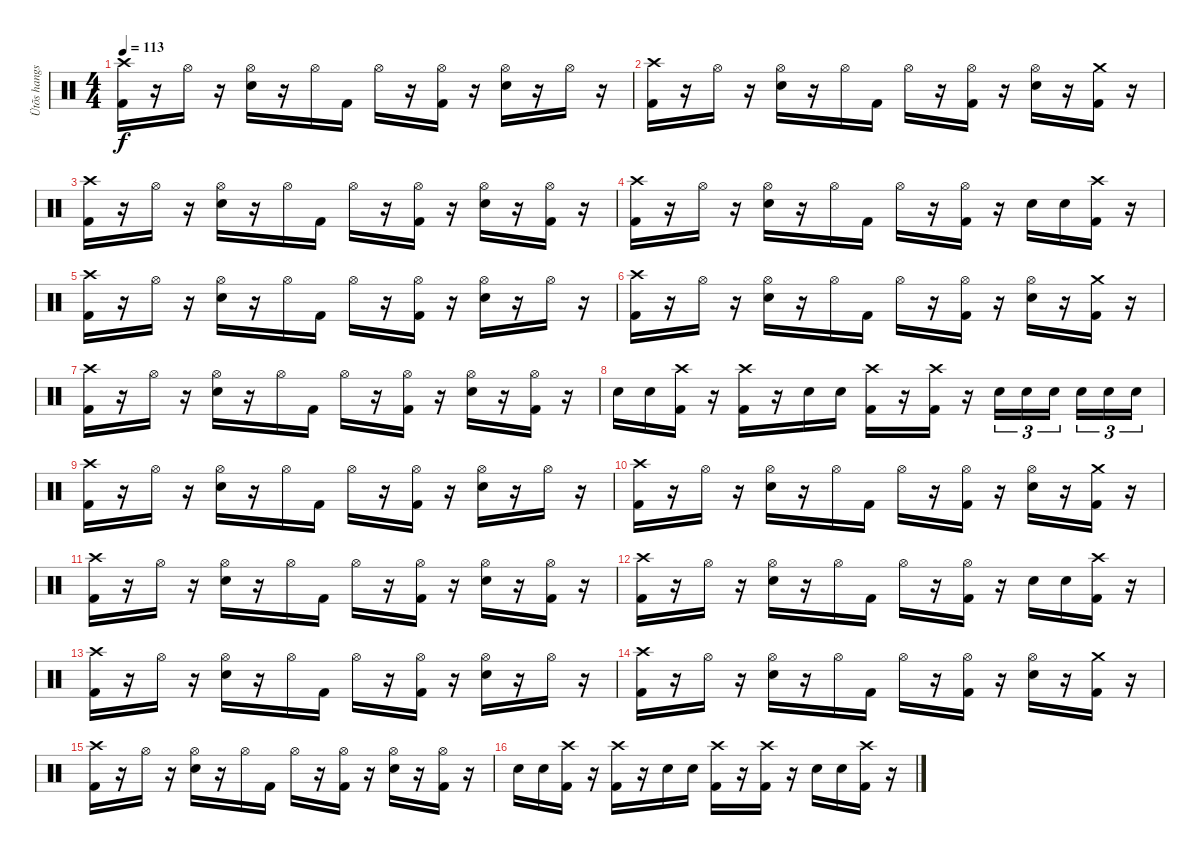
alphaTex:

\track ("Ütõs hangszer" "Ütõs hangs") {instrument percussion}
\staff {score}
\articulation defaults
\ts (4 4)
\tempo 113
\clef neutral
\ks c
("Crash high (hit)" "Kick (hit) 2").16{dy f} r.16 "Hi-Hat (open)".16 r.16 ("Hi-Hat (open)" "Electric Snare (hit)").16 r.16 "Hi-Hat (open)".16 "Kick (hit) 2".16 "Hi-Hat (open)".16 r.16 ("Hi-Hat (open)" "Kick (hit) 2").16 r.16 ("Hi-Hat (open)" "Electric Snare (hit)").16 r.16 "Hi-Hat (open)".16 r.16 |
("Crash high (hit)" "Kick (hit) 2").16 r.16 "Hi-Hat (open)".16 r.16 ("Hi-Hat (open)" "Electric Snare (hit)").16 r.16 "Hi-Hat (open)".16 "Kick (hit) 2".16 "Hi-Hat (open)".16 r.16 ("Hi-Hat (open)" "Kick (hit) 2").16 r.16 ("Hi-Hat (open)" "Electric Snare (hit)").16 r.16 ("Crash medium (hit)" "Kick (hit) 2").16 r.16 |
("Crash high (hit)" "Kick (hit) 2").16 r.16 "Hi-Hat (open)".16 r.16 ("Hi-Hat (open)" "Electric Snare (hit)").16 r.16 "Hi-Hat (open)".16 "Kick (hit) 2".16 "Hi-Hat (open)".16 r.16 ("Hi-Hat (open)" "Kick (hit) 2").16 r.16 ("Hi-Hat (open)" "Electric Snare (hit)").16 r.16 ("Hi-Hat (open)" "Kick (hit) 2").16 r.16 |
("Crash high (hit)" "Kick (hit) 2").16 r.16 "Hi-Hat (open)".16 r.16 ("Hi-Hat (open)" "Electric Snare (hit)").16 r.16 "Hi-Hat (open)".16 "Kick (hit) 2".16 "Hi-Hat (open)".16 r.16 ("Hi-Hat (open)" "Kick (hit) 2").16 r.16 "Electric Snare (hit)".16 "Electric Snare (hit)".16 ("Crash high (hit)" "Kick (hit) 2").16 r.16 |
("Crash high (hit)" "Kick (hit) 2").16 r.16 "Hi-Hat (open)".16 r.16 ("Hi-Hat (open)" "Electric Snare (hit)").16 r.16 "Hi-Hat (open)".16 "Kick (hit) 2".16 "Hi-Hat (open)".16 r.16 ("Hi-Hat (open)" "Kick (hit) 2").16 r.16 ("Hi-Hat (open)" "Electric Snare (hit)").16 r.16 "Hi-Hat (open)".16 r.16 |
("Crash high (hit)" "Kick (hit) 2").16 r.16 "Hi-Hat (open)".16 r.16 ("Hi-Hat (open)" "Electric Snare (hit)").16 r.16 "Hi-Hat (open)".16 "Kick (hit) 2".16 "Hi-Hat (open)".16 r.16 ("Hi-Hat (open)" "Kick (hit) 2").16 r.16 ("Hi-Hat (open)" "Electric Snare (hit)").16 r.16 ("Crash medium (hit)" "Kick (hit) 2").16 r.16 |
("Crash high (hit)" "Kick (hit) 2").16 r.16 "Hi-Hat (open)".16 r.16 ("Hi-Hat (open)" "Electric Snare (hit)").16 r.16 "Hi-Hat (open)".16 "Kick (hit) 2".16 "Hi-Hat (open)".16 r.16 ("Hi-Hat (open)" "Kick (hit) 2").16 r.16 ("Hi-Hat (open)" "Electric Snare (hit)").16 r.16 ("Hi-Hat (open)" "Kick (hit) 2").16 r.16 |
"Electric Snare (hit)".16 "Electric Snare (hit)".16 ("Crash high (hit)" "Kick (hit) 2").16 r.16 ("Crash high (hit)" "Kick (hit) 2").16 r.16 "Electric Snare (hit)".16 "Electric Snare (hit)".16 ("Crash high (hit)" "Kick (hit) 2").16 r.16 ("Crash high (hit)" "Kick (hit) 2").16 r.16 "Electric Snare (hit)".16{tu (3 2)} "Electric Snare (hit)".16{tu (3 2)} "Electric Snare (hit)".16{tu (3 2)} "Electric Snare (hit)".16{tu (3 2)} "Electric Snare (hit)".16{tu (3 2)} "Electric Snare (hit)".16{tu (3 2)} |
("Crash high (hit)" "Kick (hit) 2").16 r.16 "Hi-Hat (open)".16 r.16 ("Hi-Hat (open)" "Electric Snare (hit)").16 r.16 "Hi-Hat (open)".16 "Kick (hit) 2".16 "Hi-Hat (open)".16 r.16 ("Hi-Hat (open)" "Kick (hit) 2").16 r.16 ("Hi-Hat (open)" "Electric Snare (hit)").16 r.16 "Hi-Hat (open)".16 r.16 |
("Crash high (hit)" "Kick (hit) 2").16 r.16 "Hi-Hat (open)".16 r.16 ("Hi-Hat (open)" "Electric Snare (hit)").16 r.16 "Hi-Hat (open)".16 "Kick (hit) 2".16 "Hi-Hat (open)".16 r.16 ("Hi-Hat (open)" "Kick (hit) 2").16 r.16 ("Hi-Hat (open)" "Electric Snare (hit)").16 r.16 ("Crash medium (hit)" "Kick (hit) 2").16 r.16 |
("Crash high (hit)" "Kick (hit) 2").16 r.16 "Hi-Hat (open)".16 r.16 ("Hi-Hat (open)" "Electric Snare (hit)").16 r.16 "Hi-Hat (open)".16 "Kick (hit) 2".16 "Hi-Hat (open)".16 r.16 ("Hi-Hat (open)" "Kick (hit) 2").16 r.16 ("Hi-Hat (open)" "Electric Snare (hit)").16 r.16 ("Hi-Hat (open)" "Kick (hit) 2").16 r.16 |
("Crash high (hit)" "Kick (hit) 2").16 r.16 "Hi-Hat (open)".16 r.16 ("Hi-Hat (open)" "Electric Snare (hit)").16 r.16 "Hi-Hat (open)".16 "Kick (hit) 2".16 "Hi-Hat (open)".16 r.16 ("Hi-Hat (open)" "Kick (hit) 2").16 r.16 "Electric Snare (hit)".16 "Electric Snare (hit)".16 ("Crash high (hit)" "Kick (hit) 2").16 r.16 |
("Crash high (hit)" "Kick (hit) 2").16 r.16 "Hi-Hat (open)".16 r.16 ("Hi-Hat (open)" "Electric Snare (hit)").16 r.16 "Hi-Hat (open)".16 "Kick (hit) 2".16 "Hi-Hat (open)".16 r.16 ("Hi-Hat (open)" "Kick (hit) 2").16 r.16 ("Hi-Hat (open)" "Electric Snare (hit)").16 r.16 "Hi-Hat (open)".16 r.16 |
("Crash high (hit)" "Kick (hit) 2").16 r.16 "Hi-Hat (open)".16 r.16 ("Hi-Hat (open)" "Electric Snare (hit)").16 r.16 "Hi-Hat (open)".16 "Kick (hit) 2".16 "Hi-Hat (open)".16 r.16 ("Hi-Hat (open)" "Kick (hit) 2").16 r.16 ("Hi-Hat (open)" "Electric Snare (hit)").16 r.16 ("Crash medium (hit)" "Kick (hit) 2").16 r.16 |
("Crash high (hit)" "Kick (hit) 2").16 r.16 "Hi-Hat (open)".16 r.16 ("Hi-Hat (open)" "Electric Snare (hit)").16 r.16 "Hi-Hat (open)".16 "Kick (hit) 2".16 "Hi-Hat (open)".16 r.16 ("Hi-Hat (open)" "Kick (hit) 2").16 r.16 ("Hi-Hat (open)" "Electric Snare (hit)").16 r.16 ("Hi-Hat (open)" "Kick (hit) 2").16 r.16 |
"Electric Snare (hit)".16 "Electric Snare (hit)".16 ("Crash high (hit)" "Kick (hit) 2").16 r.16 ("Crash high (hit)" "Kick (hit) 2").16 r.16 "Electric Snare (hit)".16 "Electric Snare (hit)".16 ("Crash high (hit)" "Kick (hit) 2").16 r.16 ("Crash high (hit)" "Kick (hit) 2").16 r.16 "Electric Snare (hit)".16 "Electric Snare (hit)".16 ("Crash high (hit)" "Kick (hit) 2").16 r.16
